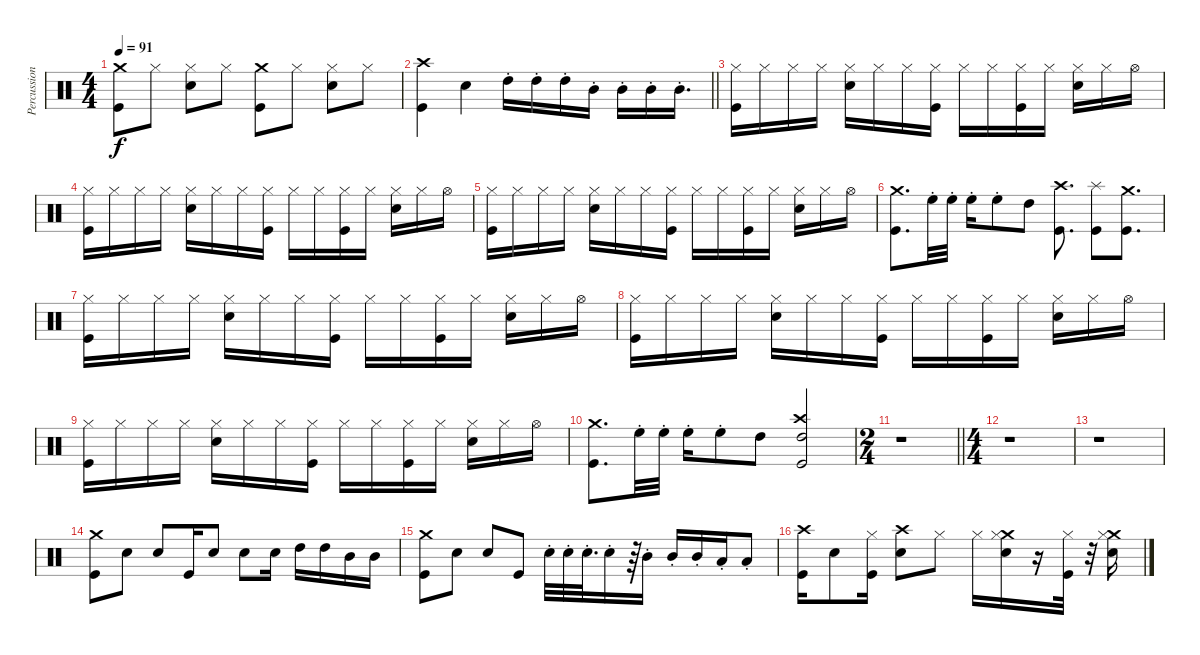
\track ("Percussion" "Percussion") {instrument percussion}
\staff {score}
\articulation defaults
\ts (4 4)
\tempo 91
\clef neutral
\ks c
("Crash medium (hit)" "Kick (hit)").8{dy f} "Hi-Hat (closed)".8 ("Hi-Hat (closed)" "Snare (hit) 2").8 "Hi-Hat (closed)".8 ("Crash medium (hit)" "Kick (hit)").8 "Hi-Hat (closed)".8 ("Hi-Hat (closed)" "Snare (hit) 2").8 "Hi-Hat (closed)".8 |
\barLineRight lightlight
("Crash high (hit)" "Kick (hit)").4 "Snare (hit) 2".4 "High Tom (hit)"{st}.16 "High Tom (hit)"{st}.16 "High Tom (hit)"{st}.16 "Mid Tom (hit)"{st}.16 "Mid Tom (hit)"{st}.16 "Mid Tom (hit)"{st}.16 "Mid Tom (hit)"{st}.16{d} |
("Hi-Hat (closed)" "Kick (hit)").16 "Hi-Hat (closed)".16 "Hi-Hat (closed)".16 "Hi-Hat (closed)".16 ("Hi-Hat (closed)" "Snare (hit) 2").16 "Hi-Hat (closed)".16 "Hi-Hat (closed)".16 ("Hi-Hat (closed)" "Kick (hit)").16 "Hi-Hat (closed)".16 "Hi-Hat (closed)".16 ("Hi-Hat (closed)" "Kick (hit)").16 "Hi-Hat (closed)".16 ("Hi-Hat (closed)" "Snare (hit) 2").16 "Hi-Hat (closed)".16 "Hi-Hat (open)".16 |
("Hi-Hat (closed)" "Kick (hit)").16 "Hi-Hat (closed)".16 "Hi-Hat (closed)".16 "Hi-Hat (closed)".16 ("Hi-Hat (closed)" "Snare (hit) 2").16 "Hi-Hat (closed)".16 "Hi-Hat (closed)".16 ("Hi-Hat (closed)" "Kick (hit)").16 "Hi-Hat (closed)".16 "Hi-Hat (closed)".16 ("Hi-Hat (closed)" "Kick (hit)").16 "Hi-Hat (closed)".16 ("Hi-Hat (closed)" "Snare (hit) 2").16 "Hi-Hat (closed)".16 "Hi-Hat (open)".16 |
("Hi-Hat (closed)" "Kick (hit)").16 "Hi-Hat (closed)".16 "Hi-Hat (closed)".16 "Hi-Hat (closed)".16 ("Hi-Hat (closed)" "Snare (hit) 2").16 "Hi-Hat (closed)".16 "Hi-Hat (closed)".16 ("Hi-Hat (closed)" "Kick (hit)").16 "Hi-Hat (closed)".16 "Hi-Hat (closed)".16 ("Hi-Hat (closed)" "Kick (hit)").16 "Hi-Hat (closed)".16 ("Hi-Hat (closed)" "Snare (hit) 2").16 "Hi-Hat (closed)".16 "Hi-Hat (open)".16 |
("Crash medium (hit)" "Kick (hit)").8{d} "High Floor Tom (hit)"{st}.32 "High Floor Tom (hit)"{st}.32 "High Floor Tom (hit)"{st}.16 "High Floor Tom (hit)"{st}.8 "High Tom (hit)".8 ("Crash high (hit)" "Kick (hit)").8{d} ("Splash (hit)" "Kick (hit)").8 ("Crash medium (hit)" "Kick (hit)").8{d} |
("Hi-Hat (closed)" "Kick (hit)").16 "Hi-Hat (closed)".16 "Hi-Hat (closed)".16 "Hi-Hat (closed)".16 ("Hi-Hat (closed)" "Snare (hit) 2").16 "Hi-Hat (closed)".16 "Hi-Hat (closed)".16 ("Hi-Hat (closed)" "Kick (hit)").16 "Hi-Hat (closed)".16 "Hi-Hat (closed)".16 ("Hi-Hat (closed)" "Kick (hit)").16 "Hi-Hat (closed)".16 ("Hi-Hat (closed)" "Snare (hit) 2").16 "Hi-Hat (closed)".16 "Hi-Hat (open)".16 |
("Hi-Hat (closed)" "Kick (hit)").16 "Hi-Hat (closed)".16 "Hi-Hat (closed)".16 "Hi-Hat (closed)".16 ("Hi-Hat (closed)" "Snare (hit) 2").16 "Hi-Hat (closed)".16 "Hi-Hat (closed)".16 ("Hi-Hat (closed)" "Kick (hit)").16 "Hi-Hat (closed)".16 "Hi-Hat (closed)".16 ("Hi-Hat (closed)" "Kick (hit)").16 "Hi-Hat (closed)".16 ("Hi-Hat (closed)" "Snare (hit) 2").16 "Hi-Hat (closed)".16 "Hi-Hat (open)".16 |
("Hi-Hat (closed)" "Kick (hit)").16 "Hi-Hat (closed)".16 "Hi-Hat (closed)".16 "Hi-Hat (closed)".16 ("Hi-Hat (closed)" "Snare (hit) 2").16 "Hi-Hat (closed)".16 "Hi-Hat (closed)".16 ("Hi-Hat (closed)" "Kick (hit)").16 "Hi-Hat (closed)".16 "Hi-Hat (closed)".16 ("Hi-Hat (closed)" "Kick (hit)").16 "Hi-Hat (closed)".16 ("Hi-Hat (closed)" "Snare (hit) 2").16 "Hi-Hat (closed)".16 "Hi-Hat (open)".16 |
("Crash medium (hit)" "Kick (hit)").8{d} "High Floor Tom (hit)"{st}.32 "High Floor Tom (hit)"{st}.32 "High Floor Tom (hit)"{st}.16 "High Floor Tom (hit)"{st}.8 "High Tom (hit)".8 ("High Tom (hit)" "Crash high (hit)" "Kick (hit)").2 |
\ts (2 4)
\barLineRight lightlight
r.1 |
\ts (4 4)
r.1 |
r.1 |
("Crash medium (hit)" "Kick (hit)").8 "Snare (hit) 2".8 "Snare (hit) 2".8 "Kick (hit)".16 "Snare (hit) 2".8 "Snare (hit) 2".8 "Snare (hit) 2".16 "High Tom (hit)".16 "High Tom (hit)".16 "Mid Tom (hit)".16 "Mid Tom (hit)".16 |
("Crash medium (hit)" "Kick (hit)").8 "Snare (hit) 2".8 "Snare (hit) 2".8 "Kick (hit)".8 "Snare (hit) 2"{st}.32 "Snare (hit) 2"{st}.32 "Snare (hit) 2"{st}.32{d} "Snare (hit) 2"{st}.16 r.64 "Mid Tom (hit)"{st}.16 "Mid Tom (hit)"{st}.16 "Mid Tom (hit)"{st}.16 "Low Floor Tom (hit)"{st}.16 "Low Floor Tom (hit)"{st}.8 |
("Crash high (hit)" "Kick (hit)").16 "Snare (hit) 2".8 ("Hi-Hat (closed)" "Kick (hit)").16 ("Crash high (hit)" "Snare (hit) 2").8 "Hi-Hat (closed)".8 "Hi-Hat (closed)".16 ("Crash medium (hit)" "Hi-Hat (closed)" "Snare (hit) 2").16 r.16 ("Hi-Hat (closed)" "Kick (hit)").32 r.32 ("Crash medium (hit)" "Hi-Hat (closed)" "Snare (hit) 2").16
